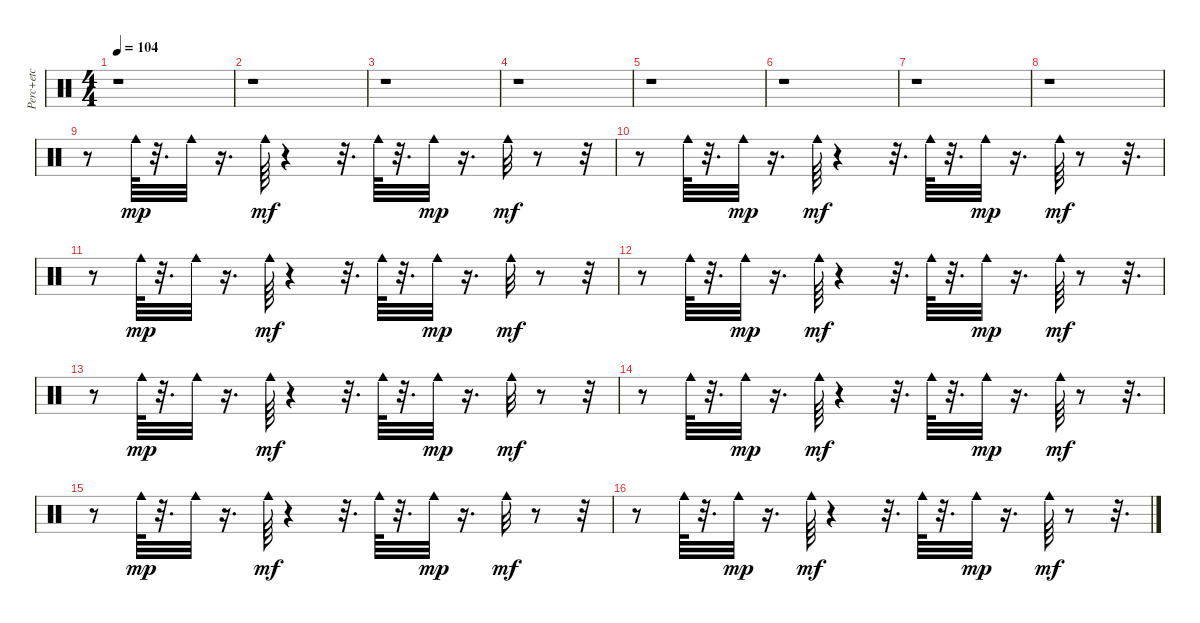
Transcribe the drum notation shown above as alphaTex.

\track ("Perc+etc" "Perc+etc") {instrument percussion}
\staff {score}
\articulation defaults
\ts (4 4)
\tempo 104
\clef neutral
\ks c
r.1{dy mp} |
r.1 |
r.1 |
r.1 |
r.1 |
r.1 |
r.1 |
r.1 |
r.8 "Cowbell medium (hit)".64 r.32{d} "Cowbell medium (hit)".32 r.16{d} "Cowbell medium (hit)".64{dy mf} r.4 r.32{d} "Cowbell medium (hit)".64 r.32{d} "Cowbell medium (hit)".32{dy mp} r.16{d} "Cowbell medium (hit)".32{dy mf} r.8 r.32 |
r.8 "Cowbell medium (hit)".64 r.32{d} "Cowbell medium (hit)".32{dy mp} r.16{d} "Cowbell medium (hit)".64{dy mf} r.4 r.32{d} "Cowbell medium (hit)".64 r.32{d} "Cowbell medium (hit)".32{dy mp} r.16{d} "Cowbell medium (hit)".64{dy mf} r.8 r.32{d} |
r.8 "Cowbell medium (hit)".64{dy mp} r.32{d} "Cowbell medium (hit)".32 r.16{d} "Cowbell medium (hit)".64{dy mf} r.4 r.32{d} "Cowbell medium (hit)".64 r.32{d} "Cowbell medium (hit)".32{dy mp} r.16{d} "Cowbell medium (hit)".32{dy mf} r.8 r.32 |
r.8 "Cowbell medium (hit)".64 r.32{d} "Cowbell medium (hit)".32{dy mp} r.16{d} "Cowbell medium (hit)".64{dy mf} r.4 r.32{d} "Cowbell medium (hit)".64 r.32{d} "Cowbell medium (hit)".32{dy mp} r.16{d} "Cowbell medium (hit)".64{dy mf} r.8 r.32{d} |
r.8 "Cowbell medium (hit)".64{dy mp} r.32{d} "Cowbell medium (hit)".32 r.16{d} "Cowbell medium (hit)".64{dy mf} r.4 r.32{d} "Cowbell medium (hit)".64 r.32{d} "Cowbell medium (hit)".32{dy mp} r.16{d} "Cowbell medium (hit)".32{dy mf} r.8 r.32 |
r.8 "Cowbell medium (hit)".64 r.32{d} "Cowbell medium (hit)".32{dy mp} r.16{d} "Cowbell medium (hit)".64{dy mf} r.4 r.32{d} "Cowbell medium (hit)".64 r.32{d} "Cowbell medium (hit)".32{dy mp} r.16{d} "Cowbell medium (hit)".64{dy mf} r.8 r.32{d} |
r.8 "Cowbell medium (hit)".64{dy mp} r.32{d} "Cowbell medium (hit)".32 r.16{d} "Cowbell medium (hit)".64{dy mf} r.4 r.32{d} "Cowbell medium (hit)".64 r.32{d} "Cowbell medium (hit)".32{dy mp} r.16{d} "Cowbell medium (hit)".32{dy mf} r.8 r.32 |
r.8 "Cowbell medium (hit)".64 r.32{d} "Cowbell medium (hit)".32{dy mp} r.16{d} "Cowbell medium (hit)".64{dy mf} r.4 r.32{d} "Cowbell medium (hit)".64 r.32{d} "Cowbell medium (hit)".32{dy mp} r.16{d} "Cowbell medium (hit)".64{dy mf} r.8 r.32{d}
